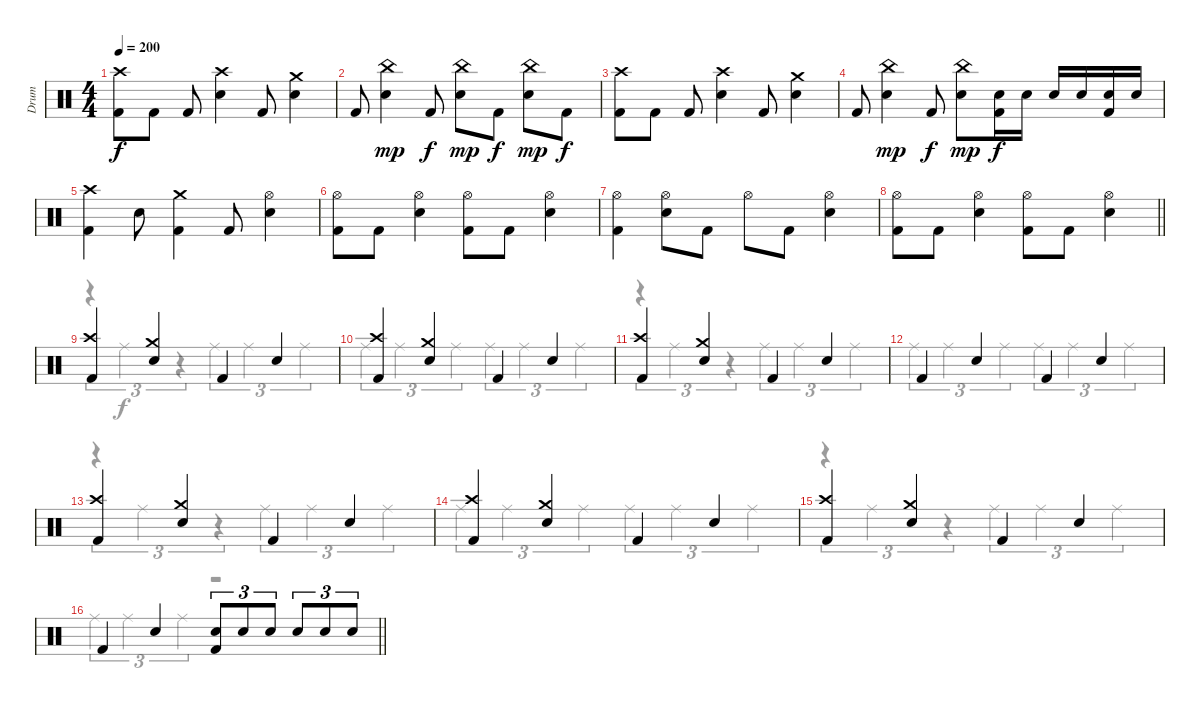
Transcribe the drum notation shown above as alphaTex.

\track ("Drum" "Drum") {instrument percussion}
\staff {score}
\articulation defaults
\voice
\ts (4 4)
\tempo 200
\clef neutral
\ks c
("Crash high (hit)" "Kick (hit) 2").8{dy f} "Kick (hit) 2".8 "Kick (hit) 2".8 ("Crash high (hit)" "Electric Snare (hit)").4 "Kick (hit) 2".8 ("Crash medium (hit)" "Electric Snare (hit)").4 |
"Kick (hit) 2".8 ("China (hit)" "Electric Snare (hit)").4{dy mp} "Kick (hit) 2".8{dy f} ("China (hit)" "Electric Snare (hit)").8{dy mp} "Kick (hit) 2".8{dy f} ("China (hit)" "Electric Snare (hit)").8{dy mp} "Kick (hit) 2".8{dy f} |
("Crash high (hit)" "Kick (hit) 2").8 "Kick (hit) 2".8 "Kick (hit) 2".8 ("Crash high (hit)" "Electric Snare (hit)").4 "Kick (hit) 2".8 ("Crash medium (hit)" "Electric Snare (hit)").4 |
"Kick (hit) 2".8 ("China (hit)" "Electric Snare (hit)").4{dy mp} "Kick (hit) 2".8{dy f} ("China (hit)" "Electric Snare (hit)").8{dy mp} ("Electric Snare (hit)" "Kick (hit) 2").16{dy f} "Electric Snare (hit)".16 "Electric Snare (hit)".16 "Electric Snare (hit)".16 ("Electric Snare (hit)" "Kick (hit) 2").16 "Electric Snare (hit)".16 |
("Crash high (hit)" "Kick (hit) 2").4 "Electric Snare (hit)".8 ("Crash medium (hit)" "Kick (hit) 2").4 "Kick (hit) 2".8 ("Hi-Hat (open)" "Electric Snare (hit)").4 |
("Hi-Hat (open)" "Kick (hit) 2").8 "Kick (hit) 2".8 ("Hi-Hat (open)" "Electric Snare (hit)").4 ("Hi-Hat (open)" "Kick (hit) 2").8 "Kick (hit) 2".8 ("Hi-Hat (open)" "Electric Snare (hit)").4 |
("Hi-Hat (open)" "Kick (hit) 2").4 ("Hi-Hat (open)" "Electric Snare (hit)").8 "Kick (hit) 2".8 "Hi-Hat (open)".8 "Kick (hit) 2".8 ("Hi-Hat (open)" "Electric Snare (hit)").4 |
\barLineRight lightlight
("Hi-Hat (open)" "Kick (hit) 2").8 "Kick (hit) 2".8 ("Hi-Hat (open)" "Electric Snare (hit)").4 ("Hi-Hat (open)" "Kick (hit) 2").8 "Kick (hit) 2".8 ("Hi-Hat (open)" "Electric Snare (hit)").4 |
("Crash high (hit)" "Kick (hit) 2").4 ("Crash medium (hit)" "Electric Snare (hit)").4 "Kick (hit) 2".4 "Electric Snare (hit)".4 |
("Crash high (hit)" "Kick (hit) 2").4 ("Crash medium (hit)" "Electric Snare (hit)").4 "Kick (hit) 2".4 "Electric Snare (hit)".4 |
("Crash high (hit)" "Kick (hit) 2").4 ("Crash medium (hit)" "Electric Snare (hit)").4 "Kick (hit) 2".4 "Electric Snare (hit)".4 |
"Kick (hit) 2".4 "Electric Snare (hit)".4 "Kick (hit) 2".4 "Electric Snare (hit)".4 |
("Crash high (hit)" "Kick (hit) 2").4 ("Crash medium (hit)" "Electric Snare (hit)").4 "Kick (hit) 2".4 "Electric Snare (hit)".4 |
("Crash high (hit)" "Kick (hit) 2").4 ("Crash medium (hit)" "Electric Snare (hit)").4 "Kick (hit) 2".4 "Electric Snare (hit)".4 |
("Crash high (hit)" "Kick (hit) 2").4 ("Crash medium (hit)" "Electric Snare (hit)").4 "Kick (hit) 2".4 "Electric Snare (hit)".4 |
\barLineRight lightlight "Kick (hit) 2".4 "Electric Snare (hit)".4
("Electric Snare (hit)" "Kick (hit) 2").8{tu (3 2)} "Electric Snare (hit)".8{tu (3 2)} "Electric Snare (hit)".8{tu (3 2)} "Electric Snare (hit)".8{tu (3 2)} "Electric Snare (hit)".8{tu (3 2)} "Electric Snare (hit)".8{tu (3 2)}
\voice
\clef neutral
\ottava regular
\simile none
\ks c
|
|
|
|
|
|
|
\barLineRight lightlight
|
r.4{tu (3 2)} "Ride (middle)".4{tu (3 2)} r.4{tu (3 2)} "Ride (middle)".4{tu (3 2)} "Ride (middle)".4{tu (3 2)} "Ride (middle)".4{tu (3 2)} |
"Ride (middle)".4{tu (3 2)} "Ride (middle)".4{tu (3 2)} "Ride (middle)".4{tu (3 2)} "Ride (middle)".4{tu (3 2)} "Ride (middle)".4{tu (3 2)} "Ride (middle)".4{tu (3 2)} |
r.4{tu (3 2)} "Ride (middle)".4{tu (3 2)} r.4{tu (3 2)} "Ride (middle)".4{tu (3 2)} "Ride (middle)".4{tu (3 2)} "Ride (middle)".4{tu (3 2)} |
"Ride (middle)".4{tu (3 2)} "Ride (middle)".4{tu (3 2)} "Ride (middle)".4{tu (3 2)} "Ride (middle)".4{tu (3 2)} "Ride (middle)".4{tu (3 2)} "Ride (middle)".4{tu (3 2)} |
r.4{tu (3 2)} "Ride (middle)".4{tu (3 2)} r.4{tu (3 2)} "Ride (middle)".4{tu (3 2)} "Ride (middle)".4{tu (3 2)} "Ride (middle)".4{tu (3 2)} |
"Ride (middle)".4{tu (3 2)} "Ride (middle)".4{tu (3 2)} "Ride (middle)".4{tu (3 2)} "Ride (middle)".4{tu (3 2)} "Ride (middle)".4{tu (3 2)} "Ride (middle)".4{tu (3 2)} |
r.4{tu (3 2)} "Ride (middle)".4{tu (3 2)} r.4{tu (3 2)} "Ride (middle)".4{tu (3 2)} "Ride (middle)".4{tu (3 2)} "Ride (middle)".4{tu (3 2)} |
\barLineRight lightlight "Ride (middle)".4{tu (3 2)} "Ride (middle)".4{tu (3 2)} "Ride (middle)".4{tu (3 2)}
r.2
